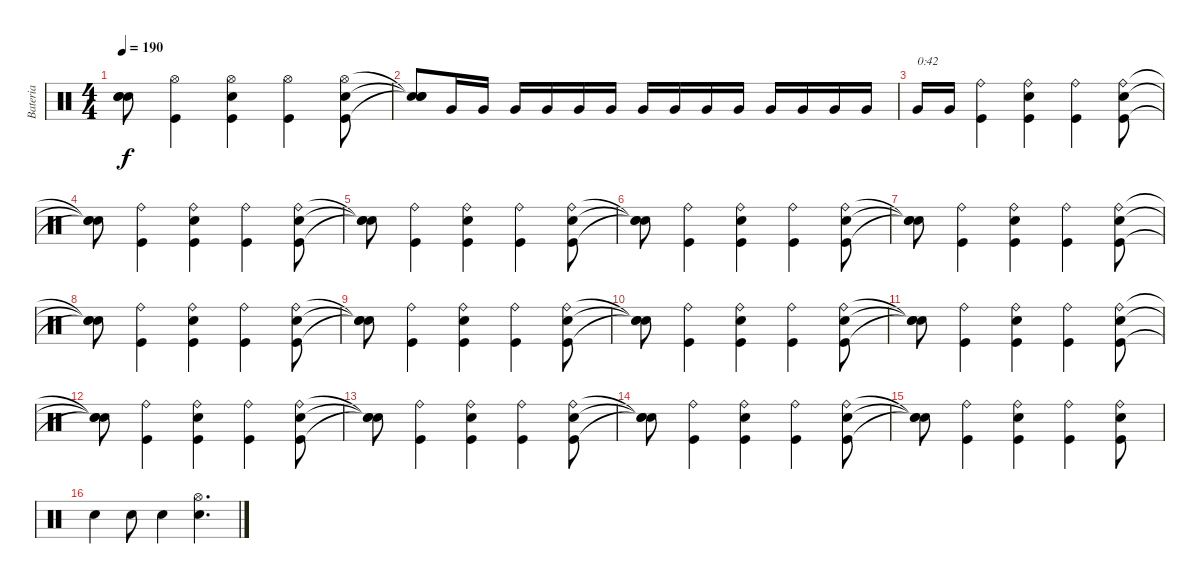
\track ("Bateria" "Bateria") {instrument percussion}
\staff {score}
\articulation defaults
\ts (4 4)
\tempo 190
\clef neutral
\ks c
("Snare (hit)"{t} "Snare (hit)"{t} "Snare (hit)"{t}).8{dy f} ("Kick (hit)" "Hi-Hat (open)").4 ("Kick (hit)" "Snare (hit) 2" "Hi-Hat (open)").4 ("Kick (hit)" "Hi-Hat (open)").4 ("Kick (hit)" "Snare (hit) 2" "Hi-Hat (open)").8 |
("Snare (hit)"{t} "Snare (hit)"{t} "Snare (hit)"{t}).8 "Very Low Tom (hit)".16 "Very Low Tom (hit)".16 "Very Low Tom (hit)".16 "Very Low Tom (hit)".16 "Very Low Tom (hit)".16 "Very Low Tom (hit)".16 "Very Low Tom (hit)".16 "Very Low Tom (hit)".16 "Very Low Tom (hit)".16 "Very Low Tom (hit)".16 "Very Low Tom (hit)".16 "Very Low Tom (hit)".16 "Very Low Tom (hit)".16 "Very Low Tom (hit)".16 |
"Very Low Tom (hit)".16{txt "0:42"} "Very Low Tom (hit)".16 ("Kick (hit)" "Ride (bell)").4 ("Kick (hit)" "Snare (hit) 2" "Ride (bell)").4 ("Kick (hit)" "Ride (bell)").4 ("Kick (hit)" "Snare (hit) 2" "Ride (bell)").8 |
("Snare (hit)"{t} "Snare (hit)"{t} "Snare (hit)"{t}).8 ("Kick (hit)" "Ride (bell)").4 ("Kick (hit)" "Snare (hit) 2" "Ride (bell)").4 ("Kick (hit)" "Ride (bell)").4 ("Kick (hit)" "Snare (hit) 2" "Ride (bell)").8 |
("Snare (hit)"{t} "Snare (hit)"{t} "Snare (hit)"{t}).8 ("Kick (hit)" "Ride (bell)").4 ("Kick (hit)" "Snare (hit) 2" "Ride (bell)").4 ("Kick (hit)" "Ride (bell)").4 ("Kick (hit)" "Snare (hit) 2" "Ride (bell)").8 |
("Snare (hit)"{t} "Snare (hit)"{t} "Snare (hit)"{t}).8 ("Kick (hit)" "Ride (bell)").4 ("Kick (hit)" "Snare (hit) 2" "Ride (bell)").4 ("Kick (hit)" "Ride (bell)").4 ("Kick (hit)" "Snare (hit) 2" "Ride (bell)").8 |
("Snare (hit)"{t} "Snare (hit)"{t} "Snare (hit)"{t}).8 ("Kick (hit)" "Ride (bell)").4 ("Kick (hit)" "Snare (hit) 2" "Ride (bell)").4 ("Kick (hit)" "Ride (bell)").4 ("Kick (hit)" "Snare (hit) 2" "Ride (bell)").8 |
("Snare (hit)"{t} "Snare (hit)"{t} "Snare (hit)"{t}).8 ("Kick (hit)" "Ride (bell)").4 ("Kick (hit)" "Snare (hit) 2" "Ride (bell)").4 ("Kick (hit)" "Ride (bell)").4 ("Kick (hit)" "Snare (hit) 2" "Ride (bell)").8 |
("Snare (hit)"{t} "Snare (hit)"{t} "Snare (hit)"{t}).8 ("Kick (hit)" "Ride (bell)").4 ("Kick (hit)" "Snare (hit) 2" "Ride (bell)").4 ("Kick (hit)" "Ride (bell)").4 ("Kick (hit)" "Snare (hit) 2" "Ride (bell)").8 |
("Snare (hit)"{t} "Snare (hit)"{t} "Snare (hit)"{t}).8 ("Kick (hit)" "Ride (bell)").4 ("Kick (hit)" "Snare (hit) 2" "Ride (bell)").4 ("Kick (hit)" "Ride (bell)").4 ("Kick (hit)" "Snare (hit) 2" "Ride (bell)").8 |
("Snare (hit)"{t} "Snare (hit)"{t} "Snare (hit)"{t}).8 ("Kick (hit)" "Ride (bell)").4 ("Kick (hit)" "Snare (hit) 2" "Ride (bell)").4 ("Kick (hit)" "Ride (bell)").4 ("Kick (hit)" "Snare (hit) 2" "Ride (bell)").8 |
("Snare (hit)"{t} "Snare (hit)"{t} "Snare (hit)"{t}).8 ("Kick (hit)" "Ride (bell)").4 ("Kick (hit)" "Snare (hit) 2" "Ride (bell)").4 ("Kick (hit)" "Ride (bell)").4 ("Kick (hit)" "Snare (hit) 2" "Ride (bell)").8 |
("Snare (hit)"{t} "Snare (hit)"{t} "Snare (hit)"{t}).8 ("Kick (hit)" "Ride (bell)").4 ("Kick (hit)" "Snare (hit) 2" "Ride (bell)").4 ("Kick (hit)" "Ride (bell)").4 ("Kick (hit)" "Snare (hit) 2" "Ride (bell)").8 |
("Snare (hit)"{t} "Snare (hit)"{t} "Snare (hit)"{t}).8 ("Kick (hit)" "Ride (bell)").4 ("Kick (hit)" "Snare (hit) 2" "Ride (bell)").4 ("Kick (hit)" "Ride (bell)").4 ("Kick (hit)" "Snare (hit) 2" "Ride (bell)").8 |
("Snare (hit)"{t} "Snare (hit)"{t} "Snare (hit)"{t}).8 ("Kick (hit)" "Ride (bell)").4 ("Kick (hit)" "Snare (hit) 2" "Ride (bell)").4 ("Kick (hit)" "Ride (bell)").4 ("Kick (hit)" "Snare (hit) 2" "Ride (bell)").8 |
"Snare (hit) 2".4 "Snare (hit) 2".8 "Snare (hit) 2".4 ("Snare (hit) 2" "Hi-Hat (open)").4{d}
